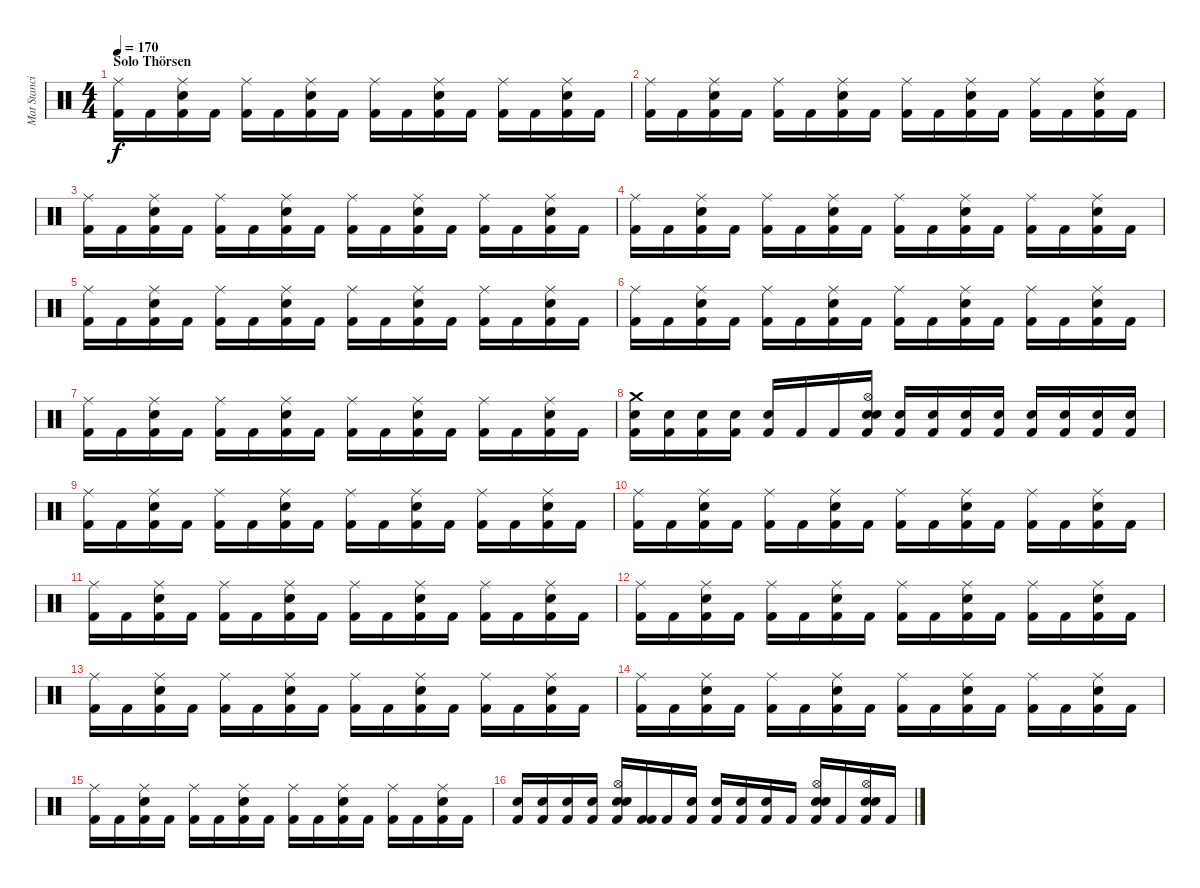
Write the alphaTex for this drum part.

\track ("Mat Stancioiu" "Mat Stanci") {instrument percussion}
\staff {score}
\articulation defaults
\ts (4 4)
\section ("" "Solo Thörsen")
\tempo 170
\clef neutral
\ks c
("Kick (hit) 2" "Ride (middle)").16{dy f} "Kick (hit) 2".16 ("Electric Snare (hit)" "Kick (hit) 2" "Ride (middle)").16 "Kick (hit) 2".16 ("Kick (hit) 2" "Ride (middle)").16 "Kick (hit) 2".16 ("Electric Snare (hit)" "Kick (hit) 2" "Ride (middle)").16 "Kick (hit) 2".16 ("Kick (hit) 2" "Ride (middle)").16 "Kick (hit) 2".16 ("Electric Snare (hit)" "Kick (hit) 2" "Ride (middle)").16 "Kick (hit) 2".16 ("Kick (hit) 2" "Ride (middle)").16 "Kick (hit) 2".16 ("Electric Snare (hit)" "Kick (hit) 2" "Ride (middle)").16 "Kick (hit) 2".16 |
("Kick (hit) 2" "Ride (middle)").16 "Kick (hit) 2".16 ("Electric Snare (hit)" "Kick (hit) 2" "Ride (middle)").16 "Kick (hit) 2".16 ("Kick (hit) 2" "Ride (middle)").16 "Kick (hit) 2".16 ("Electric Snare (hit)" "Kick (hit) 2" "Ride (middle)").16 "Kick (hit) 2".16 ("Kick (hit) 2" "Ride (middle)").16 "Kick (hit) 2".16 ("Electric Snare (hit)" "Kick (hit) 2" "Ride (middle)").16 "Kick (hit) 2".16 ("Kick (hit) 2" "Ride (middle)").16 "Kick (hit) 2".16 ("Electric Snare (hit)" "Kick (hit) 2" "Ride (middle)").16 "Kick (hit) 2".16 |
("Kick (hit) 2" "Ride (middle)").16 "Kick (hit) 2".16 ("Electric Snare (hit)" "Kick (hit) 2" "Ride (middle)").16 "Kick (hit) 2".16 ("Kick (hit) 2" "Ride (middle)").16 "Kick (hit) 2".16 ("Electric Snare (hit)" "Kick (hit) 2" "Ride (middle)").16 "Kick (hit) 2".16 ("Kick (hit) 2" "Ride (middle)").16 "Kick (hit) 2".16 ("Electric Snare (hit)" "Kick (hit) 2" "Ride (middle)").16 "Kick (hit) 2".16 ("Kick (hit) 2" "Ride (middle)").16 "Kick (hit) 2".16 ("Electric Snare (hit)" "Kick (hit) 2" "Ride (middle)").16 "Kick (hit) 2".16 |
("Kick (hit) 2" "Ride (middle)").16 "Kick (hit) 2".16 ("Electric Snare (hit)" "Kick (hit) 2" "Ride (middle)").16 "Kick (hit) 2".16 ("Kick (hit) 2" "Ride (middle)").16 "Kick (hit) 2".16 ("Electric Snare (hit)" "Kick (hit) 2" "Ride (middle)").16 "Kick (hit) 2".16 ("Kick (hit) 2" "Ride (middle)").16 "Kick (hit) 2".16 ("Electric Snare (hit)" "Kick (hit) 2" "Ride (middle)").16 "Kick (hit) 2".16 ("Kick (hit) 2" "Ride (middle)").16 "Kick (hit) 2".16 ("Electric Snare (hit)" "Kick (hit) 2" "Ride (middle)").16 "Kick (hit) 2".16 |
("Kick (hit) 2" "Ride (middle)").16 "Kick (hit) 2".16 ("Electric Snare (hit)" "Kick (hit) 2" "Ride (middle)").16 "Kick (hit) 2".16 ("Kick (hit) 2" "Ride (middle)").16 "Kick (hit) 2".16 ("Electric Snare (hit)" "Kick (hit) 2" "Ride (middle)").16 "Kick (hit) 2".16 ("Kick (hit) 2" "Ride (middle)").16 "Kick (hit) 2".16 ("Electric Snare (hit)" "Kick (hit) 2" "Ride (middle)").16 "Kick (hit) 2".16 ("Kick (hit) 2" "Ride (middle)").16 "Kick (hit) 2".16 ("Electric Snare (hit)" "Kick (hit) 2" "Ride (middle)").16 "Kick (hit) 2".16 |
("Kick (hit) 2" "Ride (middle)").16 "Kick (hit) 2".16 ("Electric Snare (hit)" "Kick (hit) 2" "Ride (middle)").16 "Kick (hit) 2".16 ("Kick (hit) 2" "Ride (middle)").16 "Kick (hit) 2".16 ("Electric Snare (hit)" "Kick (hit) 2" "Ride (middle)").16 "Kick (hit) 2".16 ("Kick (hit) 2" "Ride (middle)").16 "Kick (hit) 2".16 ("Electric Snare (hit)" "Kick (hit) 2" "Ride (middle)").16 "Kick (hit) 2".16 ("Kick (hit) 2" "Ride (middle)").16 "Kick (hit) 2".16 ("Electric Snare (hit)" "Kick (hit) 2" "Ride (middle)").16 "Kick (hit) 2".16 |
("Kick (hit) 2" "Ride (middle)").16 "Kick (hit) 2".16 ("Electric Snare (hit)" "Kick (hit) 2" "Ride (middle)").16 "Kick (hit) 2".16 ("Kick (hit) 2" "Ride (middle)").16 "Kick (hit) 2".16 ("Electric Snare (hit)" "Kick (hit) 2" "Ride (middle)").16 "Kick (hit) 2".16 ("Kick (hit) 2" "Ride (middle)").16 "Kick (hit) 2".16 ("Electric Snare (hit)" "Kick (hit) 2" "Ride (middle)").16 "Kick (hit) 2".16 ("Kick (hit) 2" "Ride (middle)").16 "Kick (hit) 2".16 ("Electric Snare (hit)" "Kick (hit) 2" "Ride (middle)").16 "Kick (hit) 2".16 |
("Electric Snare (hit)" "Kick (hit) 2" "Crash medium (hit)").16 ("Electric Snare (hit)" "Kick (hit) 2").16 ("Electric Snare (hit)" "Kick (hit) 2").16 ("Electric Snare (hit)" "Kick (hit) 2").16 ("Electric Snare (hit)" "Kick (hit) 2").16 "Kick (hit) 2".16 "Kick (hit) 2".16 ("Electric Snare (hit)" "Kick (hit) 2" "Hi-Hat (open)" "Snare (hit)").16 ("Electric Snare (hit)" "Kick (hit) 2").16 ("Electric Snare (hit)" "Kick (hit) 2").16 ("Electric Snare (hit)" "Kick (hit) 2").16 ("Electric Snare (hit)" "Kick (hit) 2").16 ("Electric Snare (hit)" "Kick (hit) 2").16 ("Electric Snare (hit)" "Kick (hit) 2").16 ("Electric Snare (hit)" "Kick (hit) 2").16 ("Electric Snare (hit)" "Kick (hit) 2").16 |
("Kick (hit) 2" "Ride (middle)").16 "Kick (hit) 2".16 ("Electric Snare (hit)" "Kick (hit) 2" "Ride (middle)").16 "Kick (hit) 2".16 ("Kick (hit) 2" "Ride (middle)").16 "Kick (hit) 2".16 ("Electric Snare (hit)" "Kick (hit) 2" "Ride (middle)").16 "Kick (hit) 2".16 ("Kick (hit) 2" "Ride (middle)").16 "Kick (hit) 2".16 ("Electric Snare (hit)" "Kick (hit) 2" "Ride (middle)").16 "Kick (hit) 2".16 ("Kick (hit) 2" "Ride (middle)").16 "Kick (hit) 2".16 ("Electric Snare (hit)" "Kick (hit) 2" "Ride (middle)").16 "Kick (hit) 2".16 |
("Kick (hit) 2" "Ride (middle)").16 "Kick (hit) 2".16 ("Electric Snare (hit)" "Kick (hit) 2" "Ride (middle)").16 "Kick (hit) 2".16 ("Kick (hit) 2" "Ride (middle)").16 "Kick (hit) 2".16 ("Electric Snare (hit)" "Kick (hit) 2" "Ride (middle)").16 "Kick (hit) 2".16 ("Kick (hit) 2" "Ride (middle)").16 "Kick (hit) 2".16 ("Electric Snare (hit)" "Kick (hit) 2" "Ride (middle)").16 "Kick (hit) 2".16 ("Kick (hit) 2" "Ride (middle)").16 "Kick (hit) 2".16 ("Electric Snare (hit)" "Kick (hit) 2" "Ride (middle)").16 "Kick (hit) 2".16 |
("Kick (hit) 2" "Ride (middle)").16 "Kick (hit) 2".16 ("Electric Snare (hit)" "Kick (hit) 2" "Ride (middle)").16 "Kick (hit) 2".16 ("Kick (hit) 2" "Ride (middle)").16 "Kick (hit) 2".16 ("Electric Snare (hit)" "Kick (hit) 2" "Ride (middle)").16 "Kick (hit) 2".16 ("Kick (hit) 2" "Ride (middle)").16 "Kick (hit) 2".16 ("Electric Snare (hit)" "Kick (hit) 2" "Ride (middle)").16 "Kick (hit) 2".16 ("Kick (hit) 2" "Ride (middle)").16 "Kick (hit) 2".16 ("Electric Snare (hit)" "Kick (hit) 2" "Ride (middle)").16 "Kick (hit) 2".16 |
("Kick (hit) 2" "Ride (middle)").16 "Kick (hit) 2".16 ("Electric Snare (hit)" "Kick (hit) 2" "Ride (middle)").16 "Kick (hit) 2".16 ("Kick (hit) 2" "Ride (middle)").16 "Kick (hit) 2".16 ("Electric Snare (hit)" "Kick (hit) 2" "Ride (middle)").16 "Kick (hit) 2".16 ("Kick (hit) 2" "Ride (middle)").16 "Kick (hit) 2".16 ("Electric Snare (hit)" "Kick (hit) 2" "Ride (middle)").16 "Kick (hit) 2".16 ("Kick (hit) 2" "Ride (middle)").16 "Kick (hit) 2".16 ("Electric Snare (hit)" "Kick (hit) 2" "Ride (middle)").16 "Kick (hit) 2".16 |
("Kick (hit) 2" "Ride (middle)").16 "Kick (hit) 2".16 ("Electric Snare (hit)" "Kick (hit) 2" "Ride (middle)").16 "Kick (hit) 2".16 ("Kick (hit) 2" "Ride (middle)").16 "Kick (hit) 2".16 ("Electric Snare (hit)" "Kick (hit) 2" "Ride (middle)").16 "Kick (hit) 2".16 ("Kick (hit) 2" "Ride (middle)").16 "Kick (hit) 2".16 ("Electric Snare (hit)" "Kick (hit) 2" "Ride (middle)").16 "Kick (hit) 2".16 ("Kick (hit) 2" "Ride (middle)").16 "Kick (hit) 2".16 ("Electric Snare (hit)" "Kick (hit) 2" "Ride (middle)").16 "Kick (hit) 2".16 |
("Kick (hit) 2" "Ride (middle)").16 "Kick (hit) 2".16 ("Electric Snare (hit)" "Kick (hit) 2" "Ride (middle)").16 "Kick (hit) 2".16 ("Kick (hit) 2" "Ride (middle)").16 "Kick (hit) 2".16 ("Electric Snare (hit)" "Kick (hit) 2" "Ride (middle)").16 "Kick (hit) 2".16 ("Kick (hit) 2" "Ride (middle)").16 "Kick (hit) 2".16 ("Electric Snare (hit)" "Kick (hit) 2" "Ride (middle)").16 "Kick (hit) 2".16 ("Kick (hit) 2" "Ride (middle)").16 "Kick (hit) 2".16 ("Electric Snare (hit)" "Kick (hit) 2" "Ride (middle)").16 "Kick (hit) 2".16 |
("Kick (hit) 2" "Ride (middle)").16 "Kick (hit) 2".16 ("Electric Snare (hit)" "Kick (hit) 2" "Ride (middle)").16 "Kick (hit) 2".16 ("Kick (hit) 2" "Ride (middle)").16 "Kick (hit) 2".16 ("Electric Snare (hit)" "Kick (hit) 2" "Ride (middle)").16 "Kick (hit) 2".16 ("Kick (hit) 2" "Ride (middle)").16 "Kick (hit) 2".16 ("Electric Snare (hit)" "Kick (hit) 2" "Ride (middle)").16 "Kick (hit) 2".16 ("Kick (hit) 2" "Ride (middle)").16 "Kick (hit) 2".16 ("Electric Snare (hit)" "Kick (hit) 2" "Ride (middle)").16 "Kick (hit) 2".16 |
("Electric Snare (hit)" "Kick (hit) 2").16 ("Electric Snare (hit)" "Kick (hit) 2").16 ("Electric Snare (hit)" "Kick (hit) 2").16 ("Electric Snare (hit)" "Kick (hit) 2").16 ("Electric Snare (hit)" "Kick (hit) 2" "Hi-Hat (open)" "Snare (hit)").16 ("Kick (hit) 2" "Kick (hit) 2").16 "Kick (hit) 2".16 ("Electric Snare (hit)" "Kick (hit) 2").16 ("Electric Snare (hit)" "Kick (hit) 2").16 ("Electric Snare (hit)" "Kick (hit) 2").16 ("Electric Snare (hit)" "Kick (hit) 2").16 "Kick (hit) 2".16 ("Electric Snare (hit)" "Kick (hit) 2" "Hi-Hat (open)" "Snare (hit)").16 "Kick (hit) 2".16 ("Electric Snare (hit)" "Kick (hit) 2" "Hi-Hat (open)" "Snare (hit)").16 "Kick (hit) 2".16
